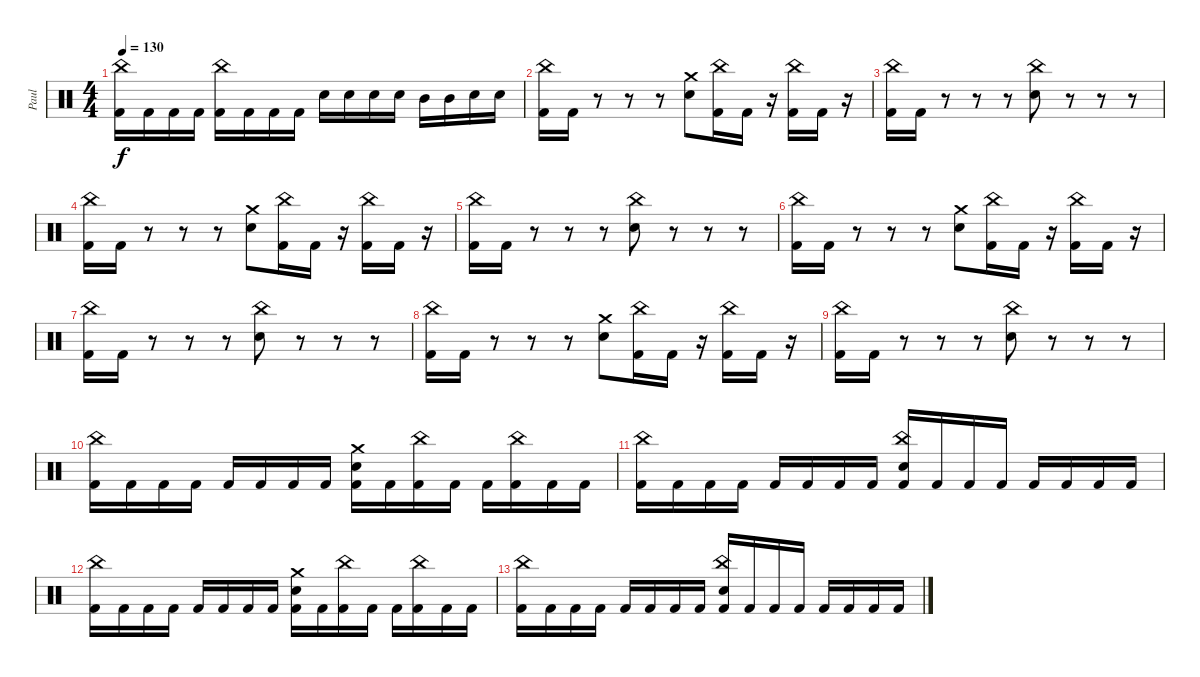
\track ("Paul " "Paul ") {instrument percussion}
\staff {score}
\articulation defaults
\ts (4 4)
\tempo 130
\clef neutral
\ks c
("Kick (hit) 2" "China (hit)").16{dy f} "Kick (hit) 2".16 "Kick (hit) 2".16 "Kick (hit) 2".16 ("Kick (hit) 2" "China (hit)").16 "Kick (hit) 2".16 "Kick (hit) 2".16 "Kick (hit) 2".16 "Electric Snare (hit)".16 "Electric Snare (hit)".16 "Electric Snare (hit)".16 "Electric Snare (hit)".16 "Mid Tom (hit)".16 "Mid Tom (hit)".16 "Electric Snare (hit)".16 "Electric Snare (hit)".16 |
("Kick (hit) 2" "China (hit)").16 "Kick (hit) 2".16 r.8 r.8 r.8 ("Electric Snare (hit)" "Crash medium (hit)").8 ("Kick (hit) 2" "China (hit)").16 "Kick (hit) 2".16 r.16 ("Kick (hit) 2" "China (hit)").16 "Kick (hit) 2".16 r.16 |
("Kick (hit) 2" "China (hit)").16 "Kick (hit) 2".16 r.8 r.8 r.8 ("Electric Snare (hit)" "China (hit)").8 r.8 r.8 r.8 |
("Kick (hit) 2" "China (hit)").16 "Kick (hit) 2".16 r.8 r.8 r.8 ("Electric Snare (hit)" "Crash medium (hit)").8 ("Kick (hit) 2" "China (hit)").16 "Kick (hit) 2".16 r.16 ("Kick (hit) 2" "China (hit)").16 "Kick (hit) 2".16 r.16 |
("Kick (hit) 2" "China (hit)").16 "Kick (hit) 2".16 r.8 r.8 r.8 ("Electric Snare (hit)" "China (hit)").8 r.8 r.8 r.8 |
("Kick (hit) 2" "China (hit)").16 "Kick (hit) 2".16 r.8 r.8 r.8 ("Electric Snare (hit)" "Crash medium (hit)").8 ("Kick (hit) 2" "China (hit)").16 "Kick (hit) 2".16 r.16 ("Kick (hit) 2" "China (hit)").16 "Kick (hit) 2".16 r.16 |
("Kick (hit) 2" "China (hit)").16 "Kick (hit) 2".16 r.8 r.8 r.8 ("Electric Snare (hit)" "China (hit)").8 r.8 r.8 r.8 |
("Kick (hit) 2" "China (hit)").16 "Kick (hit) 2".16 r.8 r.8 r.8 ("Electric Snare (hit)" "Crash medium (hit)").8 ("Kick (hit) 2" "China (hit)").16 "Kick (hit) 2".16 r.16 ("Kick (hit) 2" "China (hit)").16 "Kick (hit) 2".16 r.16 |
("Kick (hit) 2" "China (hit)").16 "Kick (hit) 2".16 r.8 r.8 r.8 ("Electric Snare (hit)" "China (hit)").8 r.8 r.8 r.8 |
("Kick (hit) 2" "China (hit)").16 "Kick (hit) 2".16 "Kick (hit) 2".16 "Kick (hit) 2".16 "Kick (hit) 2".16 "Kick (hit) 2".16 "Kick (hit) 2".16 "Kick (hit) 2".16 ("Electric Snare (hit)" "Kick (hit) 2" "Crash medium (hit)").16 "Kick (hit) 2".16 ("Kick (hit) 2" "China (hit)").16 "Kick (hit) 2".16 "Kick (hit) 2".16 ("Kick (hit) 2" "China (hit)").16 "Kick (hit) 2".16 "Kick (hit) 2".16 |
("Kick (hit) 2" "China (hit)").16 "Kick (hit) 2".16 "Kick (hit) 2".16 "Kick (hit) 2".16 "Kick (hit) 2".16 "Kick (hit) 2".16 "Kick (hit) 2".16 "Kick (hit) 2".16 ("Electric Snare (hit)" "Kick (hit) 2" "China (hit)").16 "Kick (hit) 2".16 "Kick (hit) 2".16 "Kick (hit) 2".16 "Kick (hit) 2".16 "Kick (hit) 2".16 "Kick (hit) 2".16 "Kick (hit) 2".16 |
("Kick (hit) 2" "China (hit)").16 "Kick (hit) 2".16 "Kick (hit) 2".16 "Kick (hit) 2".16 "Kick (hit) 2".16 "Kick (hit) 2".16 "Kick (hit) 2".16 "Kick (hit) 2".16 ("Electric Snare (hit)" "Kick (hit) 2" "Crash medium (hit)").16 "Kick (hit) 2".16 ("Kick (hit) 2" "China (hit)").16 "Kick (hit) 2".16 "Kick (hit) 2".16 ("Kick (hit) 2" "China (hit)").16 "Kick (hit) 2".16 "Kick (hit) 2".16 |
("Kick (hit) 2" "China (hit)").16 "Kick (hit) 2".16 "Kick (hit) 2".16 "Kick (hit) 2".16 "Kick (hit) 2".16 "Kick (hit) 2".16 "Kick (hit) 2".16 "Kick (hit) 2".16 ("Electric Snare (hit)" "Kick (hit) 2" "China (hit)").16 "Kick (hit) 2".16 "Kick (hit) 2".16 "Kick (hit) 2".16 "Kick (hit) 2".16 "Kick (hit) 2".16 "Kick (hit) 2".16 "Kick (hit) 2".16
